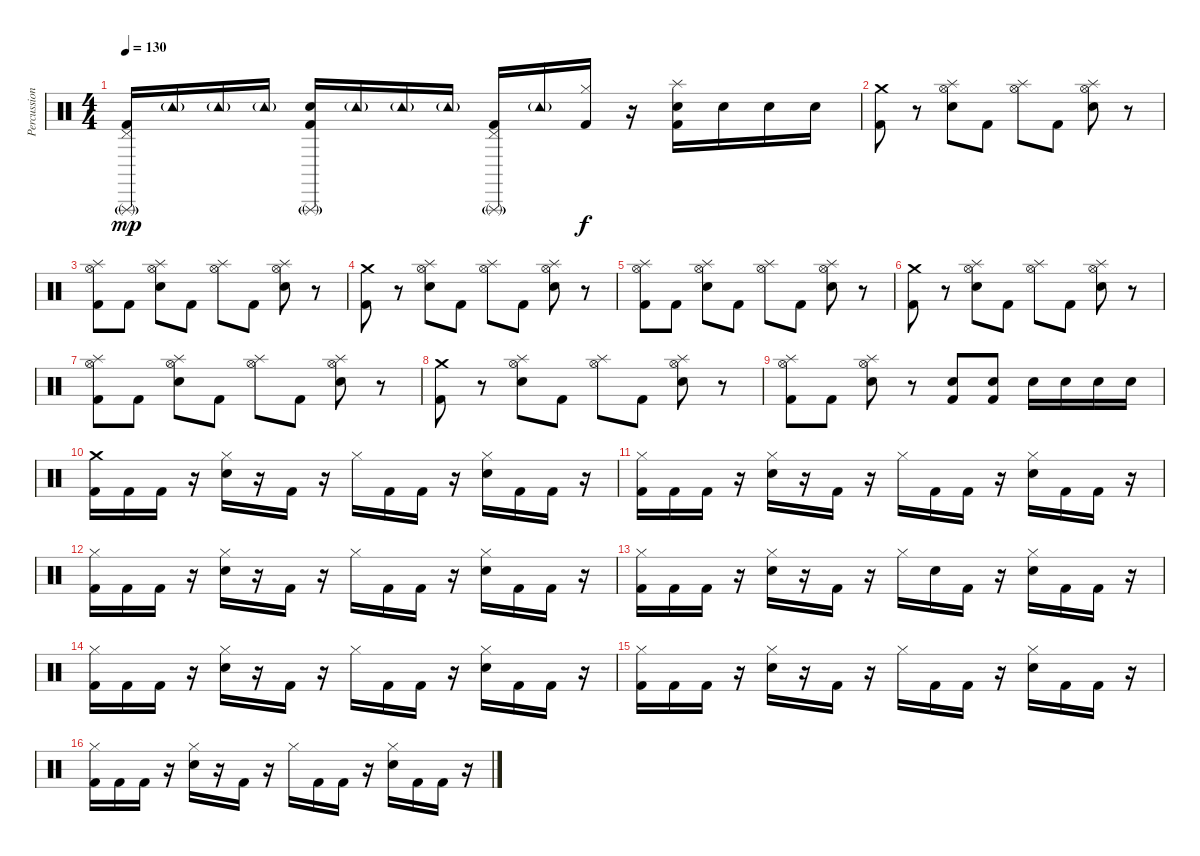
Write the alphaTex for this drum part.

\track ("Percussion" "Percussion") {instrument percussion}
\staff {score}
\articulation defaults
\ts (4 4)
\tempo 130
\clef neutral
\ks c
("Triangle (rnute)"{g} "Pedal Hi-Hat (hit)" "Kick (hit) 2").16{dy mp} "Tambourine (hit)"{g}.16 "Tambourine (hit)"{g}.16 "Tambourine (hit)"{g}.16 ("Triangle (rnute)"{g} "Electric Snare (hit)" "Kick (hit) 2").16 "Tambourine (hit)"{g}.16 "Tambourine (hit)"{g}.16 "Tambourine (hit)"{g}.16 ("Triangle (rnute)"{g} "Pedal Hi-Hat (hit)" "Kick (hit) 2").16 "Tambourine (hit)"{g}.16 ("Hi-Hat (closed)" "Kick (hit) 2").16{dy f} r.16 ("Splash (hit)" "Electric Snare (hit)" "Kick (hit) 2").16 "Electric Snare (hit)".16 "Electric Snare (hit)".16 "Electric Snare (hit)".16 |
("Crash medium (hit)" "Kick (hit) 2").8 r.8 ("Splash (hit)" "Hi-Hat (open)" "Electric Snare (hit)").8 "Kick (hit) 2".8 ("Splash (hit)" "Hi-Hat (open)").8 "Kick (hit) 2".8 ("Splash (hit)" "Hi-Hat (open)" "Electric Snare (hit)").8 r.8 |
("Splash (hit)" "Hi-Hat (open)" "Kick (hit) 2").8 "Kick (hit) 2".8 ("Splash (hit)" "Hi-Hat (open)" "Electric Snare (hit)").8 "Kick (hit) 2".8 ("Splash (hit)" "Hi-Hat (open)").8 "Kick (hit) 2".8 ("Splash (hit)" "Hi-Hat (open)" "Electric Snare (hit)").8 r.8 |
("Crash medium (hit)" "Kick (hit) 2").8 r.8 ("Splash (hit)" "Hi-Hat (open)" "Electric Snare (hit)").8 "Kick (hit) 2".8 ("Splash (hit)" "Hi-Hat (open)").8 "Kick (hit) 2".8 ("Splash (hit)" "Hi-Hat (open)" "Electric Snare (hit)").8 r.8 |
("Splash (hit)" "Hi-Hat (open)" "Kick (hit) 2").8 "Kick (hit) 2".8 ("Splash (hit)" "Hi-Hat (open)" "Electric Snare (hit)").8 "Kick (hit) 2".8 ("Splash (hit)" "Hi-Hat (open)").8 "Kick (hit) 2".8 ("Splash (hit)" "Hi-Hat (open)" "Electric Snare (hit)").8 r.8 |
("Crash medium (hit)" "Kick (hit) 2").8 r.8 ("Splash (hit)" "Hi-Hat (open)" "Electric Snare (hit)").8 "Kick (hit) 2".8 ("Splash (hit)" "Hi-Hat (open)").8 "Kick (hit) 2".8 ("Splash (hit)" "Hi-Hat (open)" "Electric Snare (hit)").8 r.8 |
("Splash (hit)" "Hi-Hat (open)" "Kick (hit) 2").8 "Kick (hit) 2".8 ("Splash (hit)" "Hi-Hat (open)" "Electric Snare (hit)").8 "Kick (hit) 2".8 ("Splash (hit)" "Hi-Hat (open)").8 "Kick (hit) 2".8 ("Splash (hit)" "Hi-Hat (open)" "Electric Snare (hit)").8 r.8 |
("Crash medium (hit)" "Kick (hit) 2").8 r.8 ("Splash (hit)" "Hi-Hat (open)" "Electric Snare (hit)").8 "Kick (hit) 2".8 ("Splash (hit)" "Hi-Hat (open)").8 "Kick (hit) 2".8 ("Splash (hit)" "Hi-Hat (open)" "Electric Snare (hit)").8 r.8 |
("Splash (hit)" "Hi-Hat (open)" "Kick (hit) 2").8 "Kick (hit) 2".8 ("Splash (hit)" "Hi-Hat (open)" "Electric Snare (hit)").8 r.8 ("Electric Snare (hit)" "Kick (hit) 2").8 ("Electric Snare (hit)" "Kick (hit) 2").8 "Electric Snare (hit)".16 "Electric Snare (hit)".16 "Electric Snare (hit)".16 "Electric Snare (hit)".16 |
("Crash medium (hit)" "Kick (hit) 2").16 "Kick (hit) 2".16 "Kick (hit) 2".16 r.16 ("Hi-Hat (closed)" "Electric Snare (hit)").16 r.16 "Kick (hit) 2".16 r.16 "Hi-Hat (closed)".16 "Kick (hit) 2".16 "Kick (hit) 2".16 r.16 ("Hi-Hat (closed)" "Electric Snare (hit)").16 "Kick (hit) 2".16 "Kick (hit) 2".16 r.16 |
("Hi-Hat (closed)" "Kick (hit) 2").16 "Kick (hit) 2".16 "Kick (hit) 2".16 r.16 ("Hi-Hat (closed)" "Electric Snare (hit)").16 r.16 "Kick (hit) 2".16 r.16 "Hi-Hat (closed)".16 "Kick (hit) 2".16 "Kick (hit) 2".16 r.16 ("Hi-Hat (closed)" "Electric Snare (hit)").16 "Kick (hit) 2".16 "Kick (hit) 2".16 r.16 |
("Hi-Hat (closed)" "Kick (hit) 2").16 "Kick (hit) 2".16 "Kick (hit) 2".16 r.16 ("Hi-Hat (closed)" "Electric Snare (hit)").16 r.16 "Kick (hit) 2".16 r.16 "Hi-Hat (closed)".16 "Kick (hit) 2".16 "Kick (hit) 2".16 r.16 ("Hi-Hat (closed)" "Electric Snare (hit)").16 "Kick (hit) 2".16 "Kick (hit) 2".16 r.16 |
("Hi-Hat (closed)" "Kick (hit) 2").16 "Kick (hit) 2".16 "Kick (hit) 2".16 r.16 ("Hi-Hat (closed)" "Electric Snare (hit)").16 r.16 "Kick (hit) 2".16 r.16 "Hi-Hat (closed)".16 "Electric Snare (hit)".16 "Kick (hit) 2".16 r.16 ("Hi-Hat (closed)" "Electric Snare (hit)").16 "Kick (hit) 2".16 "Kick (hit) 2".16 r.16 |
("Hi-Hat (closed)" "Kick (hit) 2").16 "Kick (hit) 2".16 "Kick (hit) 2".16 r.16 ("Hi-Hat (closed)" "Electric Snare (hit)").16 r.16 "Kick (hit) 2".16 r.16 "Hi-Hat (closed)".16 "Kick (hit) 2".16 "Kick (hit) 2".16 r.16 ("Hi-Hat (closed)" "Electric Snare (hit)").16 "Kick (hit) 2".16 "Kick (hit) 2".16 r.16 |
("Hi-Hat (closed)" "Kick (hit) 2").16 "Kick (hit) 2".16 "Kick (hit) 2".16 r.16 ("Hi-Hat (closed)" "Electric Snare (hit)").16 r.16 "Kick (hit) 2".16 r.16 "Hi-Hat (closed)".16 "Kick (hit) 2".16 "Kick (hit) 2".16 r.16 ("Hi-Hat (closed)" "Electric Snare (hit)").16 "Kick (hit) 2".16 "Kick (hit) 2".16 r.16 |
("Hi-Hat (closed)" "Kick (hit) 2").16 "Kick (hit) 2".16 "Kick (hit) 2".16 r.16 ("Hi-Hat (closed)" "Electric Snare (hit)").16 r.16 "Kick (hit) 2".16 r.16 "Hi-Hat (closed)".16 "Kick (hit) 2".16 "Kick (hit) 2".16 r.16 ("Hi-Hat (closed)" "Electric Snare (hit)").16 "Kick (hit) 2".16 "Kick (hit) 2".16 r.16
